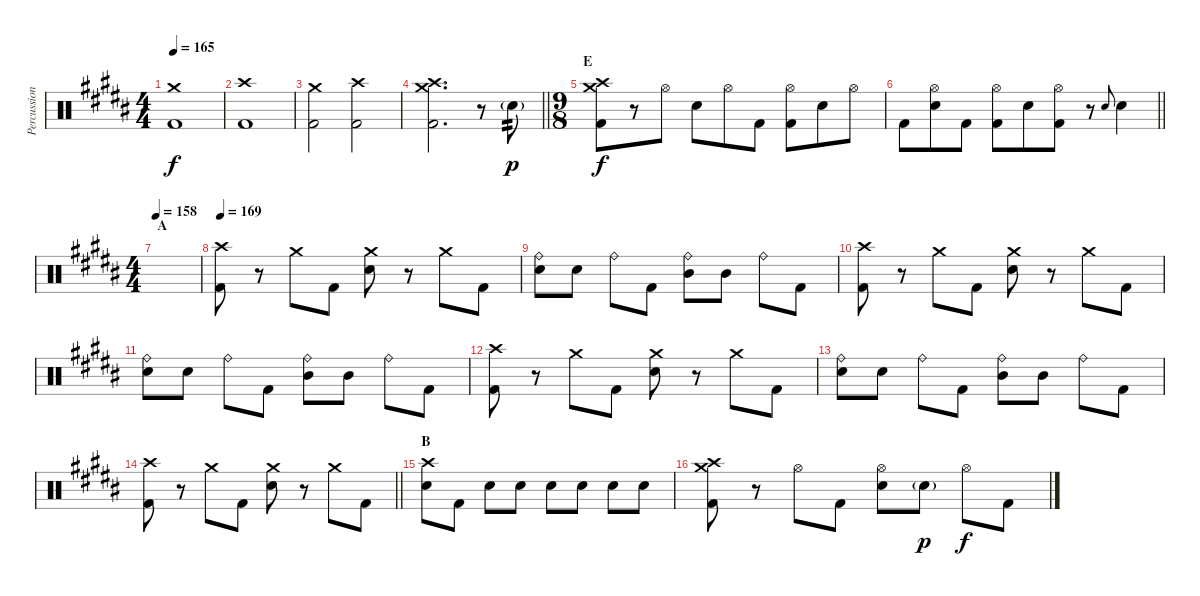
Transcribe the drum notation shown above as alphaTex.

\track ("Percussion" "Percussion") {instrument percussion}
\staff {score}
\articulation defaults
\ts (4 4)
\tempo 165
\clef neutral
\ks g#minor
("Crash medium (hit)" "Kick (hit) 2").1{dy f} |
("Crash high (hit)" "Kick (hit) 2").1 |
("Crash medium (hit)" "Kick (hit) 2").2 ("Crash high (hit)" "Kick (hit) 2").2 |
\barLineRight lightlight
("Crash medium (hit)" "Crash high (hit)" "Kick (hit) 2").2{d} r.8 "Snare (hit) 2"{g}.8{tp 2 dy p} |
\ts (9 8)
\section ("" "E")
("Crash medium (hit)" "Crash high (hit)" "Kick (hit) 2").8{dy f} r.8 "Hi-Hat (open)".8 "Snare (hit) 2".8 "Hi-Hat (open)".8 "Kick (hit) 2".8 ("Hi-Hat (open)" "Kick (hit) 2").8 "Snare (hit) 2".8 "Hi-Hat (open)".8 |
\barLineRight lightlight "Kick (hit) 2".8
("Hi-Hat (open)" "Snare (hit) 2").8 "Kick (hit) 2".8 ("Hi-Hat (open)" "Kick (hit) 2").8 "Snare (hit) 2".8 ("Hi-Hat (open)" "Kick (hit) 2").8 r.8 "Snare (hit) 2".8{gr onbeat} "Snare (hit) 2".4 |
\ts (4 4)
\section ("" "A")
\tempo 158
|
\tempo 169
("Crash high (hit)" "Kick (hit) 2").8 r.8 "Crash medium (hit)".8 "Kick (hit) 2".8 ("Crash medium (hit)" "Snare (hit) 2").8 r.8 "Crash medium (hit)".8 "Kick (hit) 2".8 |
("Ride (bell)" "Snare (hit) 2").8 "Snare (hit) 2".8 "Ride (bell)".8 "Kick (hit) 2".8 ("Ride (bell)" "Mid Tom (hit)").8 "Mid Tom (hit)".8 "Ride (bell)".8 "Kick (hit) 2".8 |
("Crash high (hit)" "Kick (hit) 2").8 r.8 "Crash medium (hit)".8 "Kick (hit) 2".8 ("Crash medium (hit)" "Snare (hit) 2").8 r.8 "Crash medium (hit)".8 "Kick (hit) 2".8 |
("Ride (bell)" "Snare (hit) 2").8 "Snare (hit) 2".8 "Ride (bell)".8 "Kick (hit) 2".8 ("Ride (bell)" "Mid Tom (hit)").8 "Mid Tom (hit)".8 "Ride (bell)".8 "Kick (hit) 2".8 |
("Crash high (hit)" "Kick (hit) 2").8 r.8 "Crash medium (hit)".8 "Kick (hit) 2".8 ("Crash medium (hit)" "Snare (hit) 2").8 r.8 "Crash medium (hit)".8 "Kick (hit) 2".8 |
("Ride (bell)" "Snare (hit) 2").8 "Snare (hit) 2".8 "Ride (bell)".8 "Kick (hit) 2".8 ("Ride (bell)" "Mid Tom (hit)").8 "Mid Tom (hit)".8 "Ride (bell)".8 "Kick (hit) 2".8 |
\barLineRight lightlight
("Crash high (hit)" "Kick (hit) 2").8 r.8 "Crash medium (hit)".8 "Kick (hit) 2".8 ("Crash medium (hit)" "Snare (hit) 2").8 r.8 "Crash medium (hit)".8 "Kick (hit) 2".8 |
\section ("" "B")
("Crash high (hit)" "Snare (hit) 2").8 "Kick (hit) 2".8 "Snare (hit) 2".8 "Snare (hit) 2".8 "Snare (hit) 2".8 "Snare (hit) 2".8 "Snare (hit) 2".8 "Snare (hit) 2".8 |
("Crash high (hit)" "Crash medium (hit)" "Kick (hit) 2").8 r.8 "Hi-Hat (open)".8 "Kick (hit) 2".8 ("Hi-Hat (open)" "Snare (hit) 2").8 "Snare (hit) 2"{g}.8{dy p} "Hi-Hat (open)".8{dy f} "Kick (hit) 2".8
